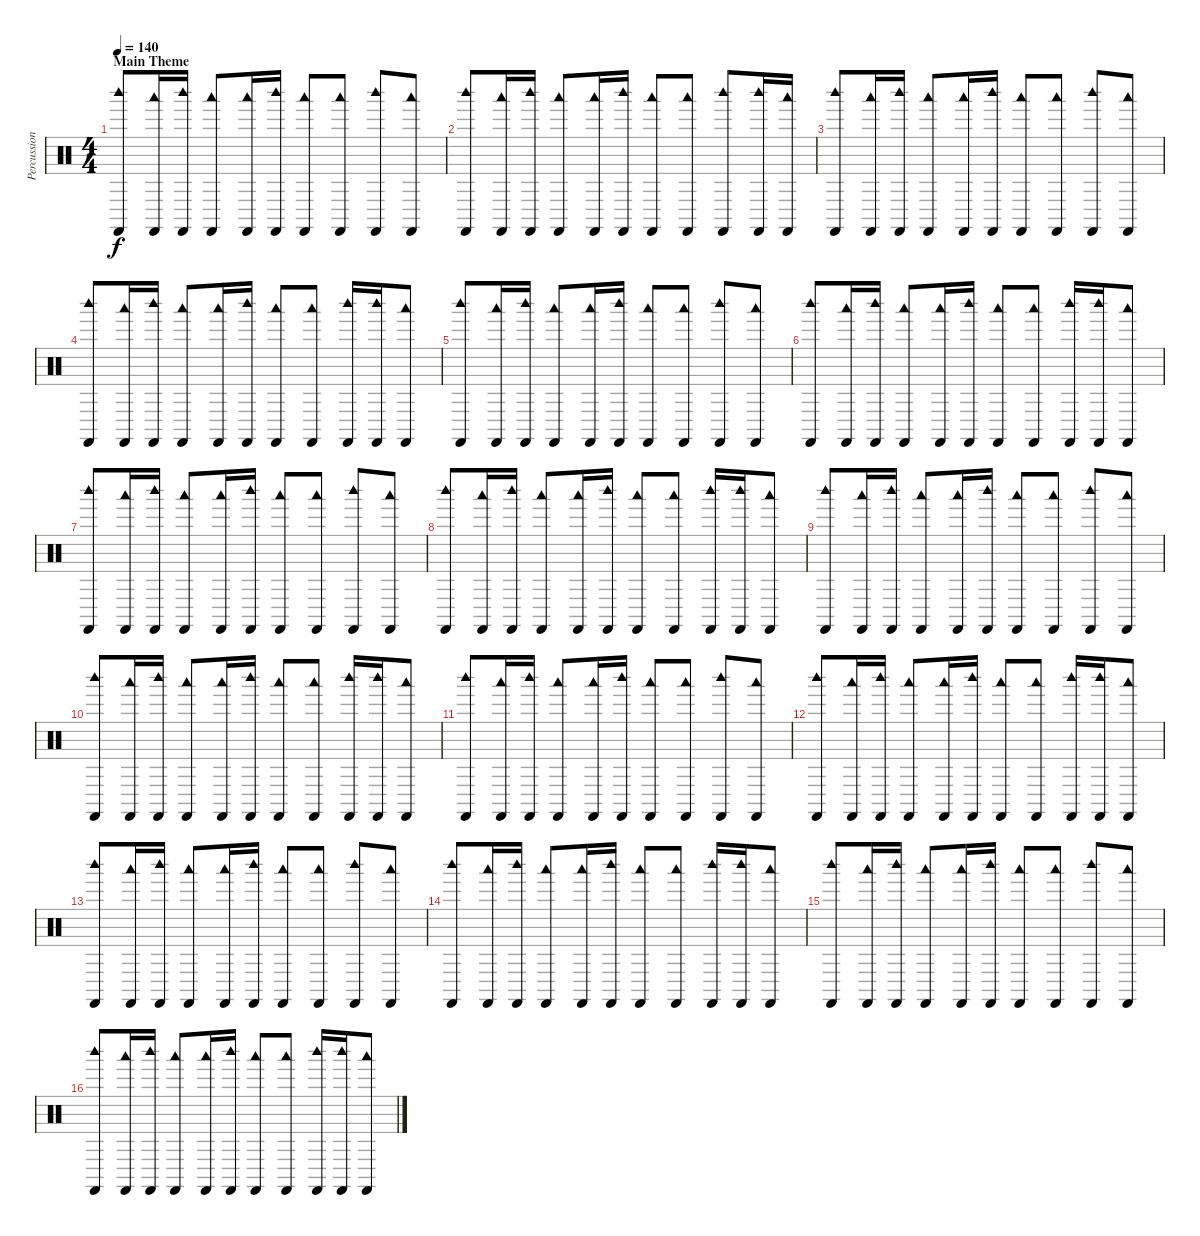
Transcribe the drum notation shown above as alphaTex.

\track ("Percussion" "Percussion") {instrument percussion}
\staff {score}
\articulation defaults
\ts (4 4)
\section ("" "Main Theme")
\tempo 140
\tempo 148
\tempo 140
\clef neutral
\ks c
("Woodblock high (hit)" "Castanets (hit)").8{dy f} ("Woodblock low (hit)" "Castanets (hit)").16 ("Woodblock high (hit)" "Castanets (hit)").16 ("Woodblock low (hit)" "Castanets (hit)").8 ("Woodblock low (hit)" "Castanets (hit)").16 ("Woodblock high (hit)" "Castanets (hit)").16 ("Woodblock low (hit)" "Castanets (hit)").8 ("Woodblock low (hit)" "Castanets (hit)").8 ("Woodblock high (hit)" "Castanets (hit)").8 ("Woodblock low (hit)" "Castanets (hit)").8 |
("Woodblock high (hit)" "Castanets (hit)").8 ("Woodblock low (hit)" "Castanets (hit)").16 ("Woodblock high (hit)" "Castanets (hit)").16 ("Woodblock low (hit)" "Castanets (hit)").8 ("Woodblock low (hit)" "Castanets (hit)").16 ("Woodblock high (hit)" "Castanets (hit)").16 ("Woodblock low (hit)" "Castanets (hit)").8 ("Woodblock low (hit)" "Castanets (hit)").8 ("Woodblock high (hit)" "Castanets (hit)").8 ("Woodblock high (hit)" "Castanets (hit)").16 ("Woodblock low (hit)" "Castanets (hit)").16 |
("Woodblock high (hit)" "Castanets (hit)").8 ("Woodblock low (hit)" "Castanets (hit)").16 ("Woodblock high (hit)" "Castanets (hit)").16 ("Woodblock low (hit)" "Castanets (hit)").8 ("Woodblock low (hit)" "Castanets (hit)").16 ("Woodblock high (hit)" "Castanets (hit)").16 ("Woodblock low (hit)" "Castanets (hit)").8 ("Woodblock low (hit)" "Castanets (hit)").8 ("Woodblock high (hit)" "Castanets (hit)").8 ("Woodblock low (hit)" "Castanets (hit)").8 |
("Woodblock high (hit)" "Castanets (hit)").8 ("Woodblock low (hit)" "Castanets (hit)").16 ("Woodblock high (hit)" "Castanets (hit)").16 ("Woodblock low (hit)" "Castanets (hit)").8 ("Woodblock low (hit)" "Castanets (hit)").16 ("Woodblock high (hit)" "Castanets (hit)").16 ("Woodblock low (hit)" "Castanets (hit)").8 ("Woodblock low (hit)" "Castanets (hit)").8 ("Woodblock high (hit)" "Castanets (hit)").16 ("Woodblock high (hit)" "Castanets (hit)").16 ("Woodblock low (hit)" "Castanets (hit)").8 |
("Woodblock high (hit)" "Castanets (hit)").8 ("Woodblock low (hit)" "Castanets (hit)").16 ("Woodblock high (hit)" "Castanets (hit)").16 ("Woodblock low (hit)" "Castanets (hit)").8 ("Woodblock low (hit)" "Castanets (hit)").16 ("Woodblock high (hit)" "Castanets (hit)").16 ("Woodblock low (hit)" "Castanets (hit)").8 ("Woodblock low (hit)" "Castanets (hit)").8 ("Woodblock high (hit)" "Castanets (hit)").8 ("Woodblock low (hit)" "Castanets (hit)").8 |
("Woodblock high (hit)" "Castanets (hit)").8 ("Woodblock low (hit)" "Castanets (hit)").16 ("Woodblock high (hit)" "Castanets (hit)").16 ("Woodblock low (hit)" "Castanets (hit)").8 ("Woodblock low (hit)" "Castanets (hit)").16 ("Woodblock high (hit)" "Castanets (hit)").16 ("Woodblock low (hit)" "Castanets (hit)").8 ("Woodblock low (hit)" "Castanets (hit)").8 ("Woodblock high (hit)" "Castanets (hit)").16 ("Woodblock high (hit)" "Castanets (hit)").16 ("Woodblock low (hit)" "Castanets (hit)").8 |
("Woodblock high (hit)" "Castanets (hit)").8 ("Woodblock low (hit)" "Castanets (hit)").16 ("Woodblock high (hit)" "Castanets (hit)").16 ("Woodblock low (hit)" "Castanets (hit)").8 ("Woodblock low (hit)" "Castanets (hit)").16 ("Woodblock high (hit)" "Castanets (hit)").16 ("Woodblock low (hit)" "Castanets (hit)").8 ("Woodblock low (hit)" "Castanets (hit)").8 ("Woodblock high (hit)" "Castanets (hit)").8 ("Woodblock low (hit)" "Castanets (hit)").8 |
("Woodblock high (hit)" "Castanets (hit)").8 ("Woodblock low (hit)" "Castanets (hit)").16 ("Woodblock high (hit)" "Castanets (hit)").16 ("Woodblock low (hit)" "Castanets (hit)").8 ("Woodblock low (hit)" "Castanets (hit)").16 ("Woodblock high (hit)" "Castanets (hit)").16 ("Woodblock low (hit)" "Castanets (hit)").8 ("Woodblock low (hit)" "Castanets (hit)").8 ("Woodblock high (hit)" "Castanets (hit)").16 ("Woodblock high (hit)" "Castanets (hit)").16 ("Woodblock low (hit)" "Castanets (hit)").8 |
("Woodblock high (hit)" "Castanets (hit)").8 ("Woodblock low (hit)" "Castanets (hit)").16 ("Woodblock high (hit)" "Castanets (hit)").16 ("Woodblock low (hit)" "Castanets (hit)").8 ("Woodblock low (hit)" "Castanets (hit)").16 ("Woodblock high (hit)" "Castanets (hit)").16 ("Woodblock low (hit)" "Castanets (hit)").8 ("Woodblock low (hit)" "Castanets (hit)").8 ("Woodblock high (hit)" "Castanets (hit)").8 ("Woodblock low (hit)" "Castanets (hit)").8 |
("Woodblock high (hit)" "Castanets (hit)").8 ("Woodblock low (hit)" "Castanets (hit)").16 ("Woodblock high (hit)" "Castanets (hit)").16 ("Woodblock low (hit)" "Castanets (hit)").8 ("Woodblock low (hit)" "Castanets (hit)").16 ("Woodblock high (hit)" "Castanets (hit)").16 ("Woodblock low (hit)" "Castanets (hit)").8 ("Woodblock low (hit)" "Castanets (hit)").8 ("Woodblock high (hit)" "Castanets (hit)").16 ("Woodblock high (hit)" "Castanets (hit)").16 ("Woodblock low (hit)" "Castanets (hit)").8 |
("Woodblock high (hit)" "Castanets (hit)").8 ("Woodblock low (hit)" "Castanets (hit)").16 ("Woodblock high (hit)" "Castanets (hit)").16 ("Woodblock low (hit)" "Castanets (hit)").8 ("Woodblock low (hit)" "Castanets (hit)").16 ("Woodblock high (hit)" "Castanets (hit)").16 ("Woodblock low (hit)" "Castanets (hit)").8 ("Woodblock low (hit)" "Castanets (hit)").8 ("Woodblock high (hit)" "Castanets (hit)").8 ("Woodblock low (hit)" "Castanets (hit)").8 |
("Woodblock high (hit)" "Castanets (hit)").8 ("Woodblock low (hit)" "Castanets (hit)").16 ("Woodblock high (hit)" "Castanets (hit)").16 ("Woodblock low (hit)" "Castanets (hit)").8 ("Woodblock low (hit)" "Castanets (hit)").16 ("Woodblock high (hit)" "Castanets (hit)").16 ("Woodblock low (hit)" "Castanets (hit)").8 ("Woodblock low (hit)" "Castanets (hit)").8 ("Woodblock high (hit)" "Castanets (hit)").16 ("Woodblock high (hit)" "Castanets (hit)").16 ("Woodblock low (hit)" "Castanets (hit)").8 |
("Woodblock high (hit)" "Castanets (hit)").8 ("Woodblock low (hit)" "Castanets (hit)").16 ("Woodblock high (hit)" "Castanets (hit)").16 ("Woodblock low (hit)" "Castanets (hit)").8 ("Woodblock low (hit)" "Castanets (hit)").16 ("Woodblock high (hit)" "Castanets (hit)").16 ("Woodblock low (hit)" "Castanets (hit)").8 ("Woodblock low (hit)" "Castanets (hit)").8 ("Woodblock high (hit)" "Castanets (hit)").8 ("Woodblock low (hit)" "Castanets (hit)").8 |
("Woodblock high (hit)" "Castanets (hit)").8 ("Woodblock low (hit)" "Castanets (hit)").16 ("Woodblock high (hit)" "Castanets (hit)").16 ("Woodblock low (hit)" "Castanets (hit)").8 ("Woodblock low (hit)" "Castanets (hit)").16 ("Woodblock high (hit)" "Castanets (hit)").16 ("Woodblock low (hit)" "Castanets (hit)").8 ("Woodblock low (hit)" "Castanets (hit)").8 ("Woodblock high (hit)" "Castanets (hit)").16 ("Woodblock high (hit)" "Castanets (hit)").16 ("Woodblock low (hit)" "Castanets (hit)").8 |
("Woodblock high (hit)" "Castanets (hit)").8 ("Woodblock low (hit)" "Castanets (hit)").16 ("Woodblock high (hit)" "Castanets (hit)").16 ("Woodblock low (hit)" "Castanets (hit)").8 ("Woodblock low (hit)" "Castanets (hit)").16 ("Woodblock high (hit)" "Castanets (hit)").16 ("Woodblock low (hit)" "Castanets (hit)").8 ("Woodblock low (hit)" "Castanets (hit)").8 ("Woodblock high (hit)" "Castanets (hit)").8 ("Woodblock low (hit)" "Castanets (hit)").8 |
("Woodblock high (hit)" "Castanets (hit)").8 ("Woodblock low (hit)" "Castanets (hit)").16 ("Woodblock high (hit)" "Castanets (hit)").16 ("Woodblock low (hit)" "Castanets (hit)").8 ("Woodblock low (hit)" "Castanets (hit)").16 ("Woodblock high (hit)" "Castanets (hit)").16 ("Woodblock low (hit)" "Castanets (hit)").8 ("Woodblock low (hit)" "Castanets (hit)").8 ("Woodblock high (hit)" "Castanets (hit)").16 ("Woodblock high (hit)" "Castanets (hit)").16 ("Woodblock low (hit)" "Castanets (hit)").8
